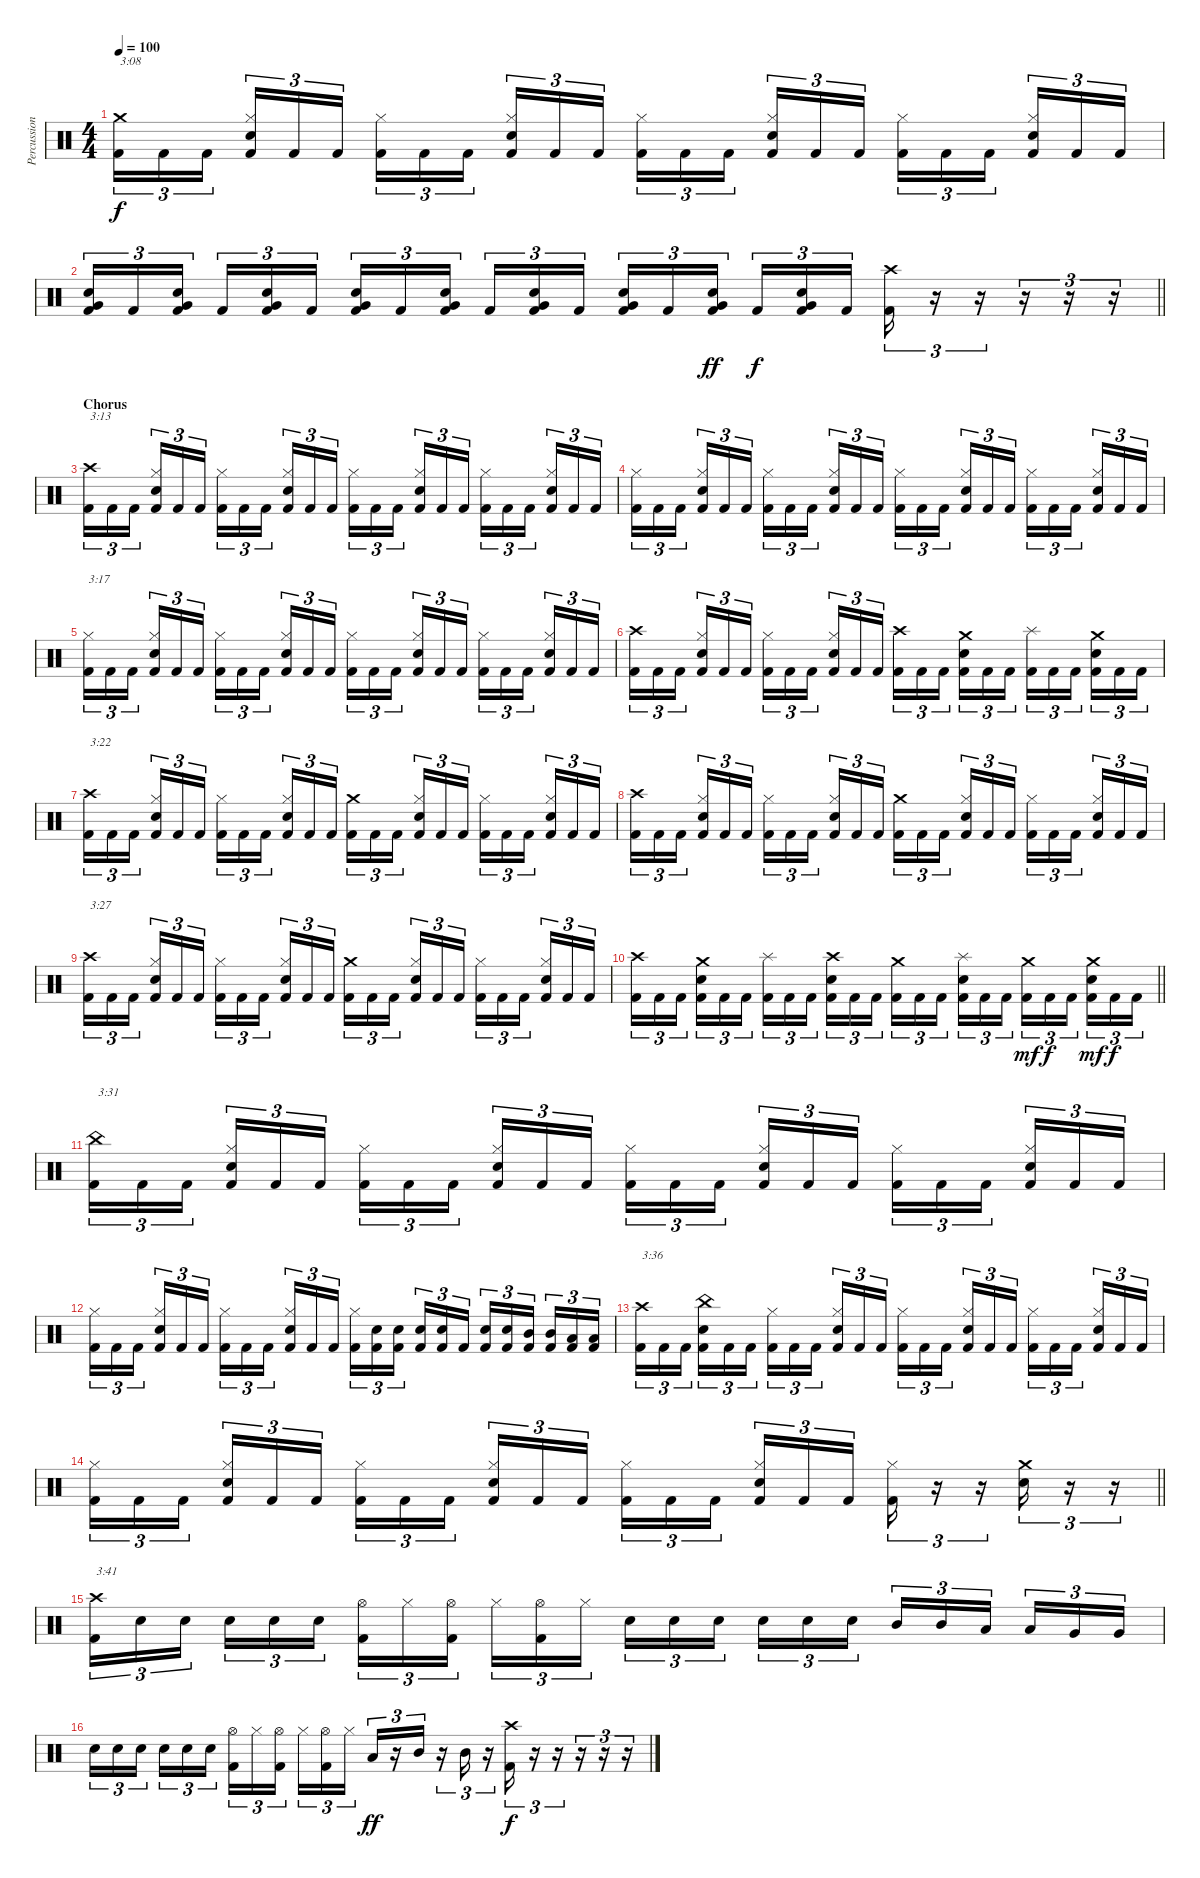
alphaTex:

\track ("Percussion" "Percussion") {instrument percussion}
\staff {score}
\articulation defaults
\ts (4 4)
\tempo 100
\clef neutral
\ks c
("Crash medium (hit)" "Kick (hit) 2").16{tu (3 2) txt "3:08" dy f} "Kick (hit) 2".16{tu (3 2)} "Kick (hit) 2".16{tu (3 2) beam splitsecondary} ("Hi-Hat (closed)" "Snare (hit) 2" "Kick (hit) 2").16{tu (3 2)} "Kick (hit) 2".16{tu (3 2)} "Kick (hit) 2".16{tu (3 2)} ("Hi-Hat (closed)" "Kick (hit) 2").16{tu (3 2)} "Kick (hit) 2".16{tu (3 2)} "Kick (hit) 2".16{tu (3 2) beam splitsecondary} ("Hi-Hat (closed)" "Snare (hit) 2" "Kick (hit) 2").16{tu (3 2)} "Kick (hit) 2".16{tu (3 2)} "Kick (hit) 2".16{tu (3 2)} ("Hi-Hat (closed)" "Kick (hit) 2").16{tu (3 2)} "Kick (hit) 2".16{tu (3 2)} "Kick (hit) 2".16{tu (3 2) beam splitsecondary} ("Hi-Hat (closed)" "Snare (hit) 2" "Kick (hit) 2").16{tu (3 2)} "Kick (hit) 2".16{tu (3 2)} "Kick (hit) 2".16{tu (3 2)} ("Hi-Hat (closed)" "Kick (hit) 2").16{tu (3 2)} "Kick (hit) 2".16{tu (3 2)} "Kick (hit) 2".16{tu (3 2) beam splitsecondary} ("Hi-Hat (closed)" "Snare (hit) 2" "Kick (hit) 2").16{tu (3 2)} "Kick (hit) 2".16{tu (3 2)} "Kick (hit) 2".16{tu (3 2)} |
\barLineRight lightlight
("Very Low Tom (hit)" "Snare (hit) 2" "Kick (hit) 2").16{tu (3 2)} "Kick (hit) 2".16{tu (3 2)} ("Very Low Tom (hit)" "Snare (hit) 2" "Kick (hit) 2").16{tu (3 2) beam splitsecondary} "Kick (hit) 2".16{tu (3 2)} ("Very Low Tom (hit)" "Snare (hit) 2" "Kick (hit) 2").16{tu (3 2)} "Kick (hit) 2".16{tu (3 2)} ("Very Low Tom (hit)" "Snare (hit) 2" "Kick (hit) 2").16{tu (3 2)} "Kick (hit) 2".16{tu (3 2)} ("Very Low Tom (hit)" "Snare (hit) 2" "Kick (hit) 2").16{tu (3 2) beam splitsecondary} "Kick (hit) 2".16{tu (3 2)} ("Very Low Tom (hit)" "Snare (hit) 2" "Kick (hit) 2").16{tu (3 2)} "Kick (hit) 2".16{tu (3 2)} ("Very Low Tom (hit)" "Snare (hit) 2" "Kick (hit) 2").16{tu (3 2)} "Kick (hit) 2".16{tu (3 2)} ("Very Low Tom (hit)" "Snare (hit) 2" "Kick (hit) 2").16{tu (3 2) dy ff beam splitsecondary} "Kick (hit) 2".16{tu (3 2) dy f} ("Very Low Tom (hit)" "Snare (hit) 2" "Kick (hit) 2").16{tu (3 2)} "Kick (hit) 2".16{tu (3 2)} ("Crash high (hit)" "Kick (hit) 2").16{tu (3 2)} r.16{tu (3 2)} r.16{tu (3 2)} r.16{tu (3 2)} r.16{tu (3 2)} r.16{tu (3 2)} |
\section ("" "Chorus")
("Crash high (hit)" "Kick (hit) 2").16{tu (3 2) txt "3:13"} "Kick (hit) 2".16{tu (3 2)} "Kick (hit) 2".16{tu (3 2) beam splitsecondary} ("Hi-Hat (closed)" "Snare (hit) 2" "Kick (hit) 2").16{tu (3 2)} "Kick (hit) 2".16{tu (3 2)} "Kick (hit) 2".16{tu (3 2)} ("Hi-Hat (closed)" "Kick (hit) 2").16{tu (3 2)} "Kick (hit) 2".16{tu (3 2)} "Kick (hit) 2".16{tu (3 2) beam splitsecondary} ("Hi-Hat (closed)" "Snare (hit) 2" "Kick (hit) 2").16{tu (3 2)} "Kick (hit) 2".16{tu (3 2)} "Kick (hit) 2".16{tu (3 2)} ("Hi-Hat (closed)" "Kick (hit) 2").16{tu (3 2)} "Kick (hit) 2".16{tu (3 2)} "Kick (hit) 2".16{tu (3 2) beam splitsecondary} ("Hi-Hat (closed)" "Snare (hit) 2" "Kick (hit) 2").16{tu (3 2)} "Kick (hit) 2".16{tu (3 2)} "Kick (hit) 2".16{tu (3 2)} ("Hi-Hat (closed)" "Kick (hit) 2").16{tu (3 2)} "Kick (hit) 2".16{tu (3 2)} "Kick (hit) 2".16{tu (3 2) beam splitsecondary} ("Hi-Hat (closed)" "Snare (hit) 2" "Kick (hit) 2").16{tu (3 2)} "Kick (hit) 2".16{tu (3 2)} "Kick (hit) 2".16{tu (3 2)} |
("Hi-Hat (closed)" "Kick (hit) 2").16{tu (3 2)} "Kick (hit) 2".16{tu (3 2)} "Kick (hit) 2".16{tu (3 2) beam splitsecondary} ("Hi-Hat (closed)" "Snare (hit) 2" "Kick (hit) 2").16{tu (3 2)} "Kick (hit) 2".16{tu (3 2)} "Kick (hit) 2".16{tu (3 2)} ("Hi-Hat (closed)" "Kick (hit) 2").16{tu (3 2)} "Kick (hit) 2".16{tu (3 2)} "Kick (hit) 2".16{tu (3 2) beam splitsecondary} ("Hi-Hat (closed)" "Snare (hit) 2" "Kick (hit) 2").16{tu (3 2)} "Kick (hit) 2".16{tu (3 2)} "Kick (hit) 2".16{tu (3 2)} ("Hi-Hat (closed)" "Kick (hit) 2").16{tu (3 2)} "Kick (hit) 2".16{tu (3 2)} "Kick (hit) 2".16{tu (3 2) beam splitsecondary} ("Hi-Hat (closed)" "Snare (hit) 2" "Kick (hit) 2").16{tu (3 2)} "Kick (hit) 2".16{tu (3 2)} "Kick (hit) 2".16{tu (3 2)} ("Hi-Hat (closed)" "Kick (hit) 2").16{tu (3 2)} "Kick (hit) 2".16{tu (3 2)} "Kick (hit) 2".16{tu (3 2) beam splitsecondary} ("Hi-Hat (closed)" "Snare (hit) 2" "Kick (hit) 2").16{tu (3 2)} "Kick (hit) 2".16{tu (3 2)} "Kick (hit) 2".16{tu (3 2)} |
("Hi-Hat (closed)" "Kick (hit) 2").16{tu (3 2) txt "3:17"} "Kick (hit) 2".16{tu (3 2)} "Kick (hit) 2".16{tu (3 2) beam splitsecondary} ("Hi-Hat (closed)" "Snare (hit) 2" "Kick (hit) 2").16{tu (3 2)} "Kick (hit) 2".16{tu (3 2)} "Kick (hit) 2".16{tu (3 2)} ("Hi-Hat (closed)" "Kick (hit) 2").16{tu (3 2)} "Kick (hit) 2".16{tu (3 2)} "Kick (hit) 2".16{tu (3 2) beam splitsecondary} ("Hi-Hat (closed)" "Snare (hit) 2" "Kick (hit) 2").16{tu (3 2)} "Kick (hit) 2".16{tu (3 2)} "Kick (hit) 2".16{tu (3 2)} ("Hi-Hat (closed)" "Kick (hit) 2").16{tu (3 2)} "Kick (hit) 2".16{tu (3 2)} "Kick (hit) 2".16{tu (3 2) beam splitsecondary} ("Hi-Hat (closed)" "Snare (hit) 2" "Kick (hit) 2").16{tu (3 2)} "Kick (hit) 2".16{tu (3 2)} "Kick (hit) 2".16{tu (3 2)} ("Hi-Hat (closed)" "Kick (hit) 2").16{tu (3 2)} "Kick (hit) 2".16{tu (3 2)} "Kick (hit) 2".16{tu (3 2) beam splitsecondary} ("Hi-Hat (closed)" "Snare (hit) 2" "Kick (hit) 2").16{tu (3 2)} "Kick (hit) 2".16{tu (3 2)} "Kick (hit) 2".16{tu (3 2)} |
("Crash high (hit)" "Kick (hit) 2").16{tu (3 2)} "Kick (hit) 2".16{tu (3 2)} "Kick (hit) 2".16{tu (3 2) beam splitsecondary} ("Hi-Hat (closed)" "Snare (hit) 2" "Kick (hit) 2").16{tu (3 2)} "Kick (hit) 2".16{tu (3 2)} "Kick (hit) 2".16{tu (3 2)} ("Hi-Hat (closed)" "Kick (hit) 2").16{tu (3 2)} "Kick (hit) 2".16{tu (3 2)} "Kick (hit) 2".16{tu (3 2) beam splitsecondary} ("Hi-Hat (closed)" "Snare (hit) 2" "Kick (hit) 2").16{tu (3 2)} "Kick (hit) 2".16{tu (3 2)} "Kick (hit) 2".16{tu (3 2)} ("Crash high (hit)" "Kick (hit) 2").16{tu (3 2)} "Kick (hit) 2".16{tu (3 2)} "Kick (hit) 2".16{tu (3 2) beam splitsecondary} ("Crash medium (hit)" "Snare (hit) 2" "Kick (hit) 2").16{tu (3 2)} "Kick (hit) 2".16{tu (3 2)} "Kick (hit) 2".16{tu (3 2)} ("Splash (hit)" "Kick (hit) 2").16{tu (3 2)} "Kick (hit) 2".16{tu (3 2)} "Kick (hit) 2".16{tu (3 2) beam splitsecondary} ("Crash medium (hit)" "Snare (hit) 2" "Kick (hit) 2").16{tu (3 2)} "Kick (hit) 2".16{tu (3 2)} "Kick (hit) 2".16{tu (3 2)} |
("Crash high (hit)" "Kick (hit) 2").16{tu (3 2) txt "3:22"} "Kick (hit) 2".16{tu (3 2)} "Kick (hit) 2".16{tu (3 2) beam splitsecondary} ("Hi-Hat (closed)" "Snare (hit) 2" "Kick (hit) 2").16{tu (3 2)} "Kick (hit) 2".16{tu (3 2)} "Kick (hit) 2".16{tu (3 2)} ("Hi-Hat (closed)" "Kick (hit) 2").16{tu (3 2)} "Kick (hit) 2".16{tu (3 2)} "Kick (hit) 2".16{tu (3 2) beam splitsecondary} ("Hi-Hat (closed)" "Snare (hit) 2" "Kick (hit) 2").16{tu (3 2)} "Kick (hit) 2".16{tu (3 2)} "Kick (hit) 2".16{tu (3 2)} ("Crash medium (hit)" "Kick (hit) 2").16{tu (3 2)} "Kick (hit) 2".16{tu (3 2)} "Kick (hit) 2".16{tu (3 2) beam splitsecondary} ("Hi-Hat (closed)" "Snare (hit) 2" "Kick (hit) 2").16{tu (3 2)} "Kick (hit) 2".16{tu (3 2)} "Kick (hit) 2".16{tu (3 2)} ("Hi-Hat (closed)" "Kick (hit) 2").16{tu (3 2)} "Kick (hit) 2".16{tu (3 2)} "Kick (hit) 2".16{tu (3 2) beam splitsecondary} ("Hi-Hat (closed)" "Snare (hit) 2" "Kick (hit) 2").16{tu (3 2)} "Kick (hit) 2".16{tu (3 2)} "Kick (hit) 2".16{tu (3 2)} |
("Crash high (hit)" "Kick (hit) 2").16{tu (3 2)} "Kick (hit) 2".16{tu (3 2)} "Kick (hit) 2".16{tu (3 2) beam splitsecondary} ("Hi-Hat (closed)" "Snare (hit) 2" "Kick (hit) 2").16{tu (3 2)} "Kick (hit) 2".16{tu (3 2)} "Kick (hit) 2".16{tu (3 2)} ("Hi-Hat (closed)" "Kick (hit) 2").16{tu (3 2)} "Kick (hit) 2".16{tu (3 2)} "Kick (hit) 2".16{tu (3 2) beam splitsecondary} ("Hi-Hat (closed)" "Snare (hit) 2" "Kick (hit) 2").16{tu (3 2)} "Kick (hit) 2".16{tu (3 2)} "Kick (hit) 2".16{tu (3 2)} ("Crash medium (hit)" "Kick (hit) 2").16{tu (3 2)} "Kick (hit) 2".16{tu (3 2)} "Kick (hit) 2".16{tu (3 2) beam splitsecondary} ("Hi-Hat (closed)" "Snare (hit) 2" "Kick (hit) 2").16{tu (3 2)} "Kick (hit) 2".16{tu (3 2)} "Kick (hit) 2".16{tu (3 2)} ("Hi-Hat (closed)" "Kick (hit) 2").16{tu (3 2)} "Kick (hit) 2".16{tu (3 2)} "Kick (hit) 2".16{tu (3 2) beam splitsecondary} ("Hi-Hat (closed)" "Snare (hit) 2" "Kick (hit) 2").16{tu (3 2)} "Kick (hit) 2".16{tu (3 2)} "Kick (hit) 2".16{tu (3 2)} |
("Crash high (hit)" "Kick (hit) 2").16{tu (3 2) txt "3:27"} "Kick (hit) 2".16{tu (3 2)} "Kick (hit) 2".16{tu (3 2) beam splitsecondary} ("Hi-Hat (closed)" "Snare (hit) 2" "Kick (hit) 2").16{tu (3 2)} "Kick (hit) 2".16{tu (3 2)} "Kick (hit) 2".16{tu (3 2)} ("Hi-Hat (closed)" "Kick (hit) 2").16{tu (3 2)} "Kick (hit) 2".16{tu (3 2)} "Kick (hit) 2".16{tu (3 2) beam splitsecondary} ("Hi-Hat (closed)" "Snare (hit) 2" "Kick (hit) 2").16{tu (3 2)} "Kick (hit) 2".16{tu (3 2)} "Kick (hit) 2".16{tu (3 2)} ("Crash medium (hit)" "Kick (hit) 2").16{tu (3 2)} "Kick (hit) 2".16{tu (3 2)} "Kick (hit) 2".16{tu (3 2) beam splitsecondary} ("Hi-Hat (closed)" "Snare (hit) 2" "Kick (hit) 2").16{tu (3 2)} "Kick (hit) 2".16{tu (3 2)} "Kick (hit) 2".16{tu (3 2)} ("Hi-Hat (closed)" "Kick (hit) 2").16{tu (3 2)} "Kick (hit) 2".16{tu (3 2)} "Kick (hit) 2".16{tu (3 2) beam splitsecondary} ("Hi-Hat (closed)" "Snare (hit) 2" "Kick (hit) 2").16{tu (3 2)} "Kick (hit) 2".16{tu (3 2)} "Kick (hit) 2".16{tu (3 2)} |
\barLineRight lightlight
("Crash high (hit)" "Kick (hit) 2").16{tu (3 2)} "Kick (hit) 2".16{tu (3 2)} "Kick (hit) 2".16{tu (3 2) beam splitsecondary} ("Crash medium (hit)" "Snare (hit) 2" "Kick (hit) 2").16{tu (3 2)} "Kick (hit) 2".16{tu (3 2)} "Kick (hit) 2".16{tu (3 2)} ("Splash (hit)" "Kick (hit) 2").16{tu (3 2)} "Kick (hit) 2".16{tu (3 2)} "Kick (hit) 2".16{tu (3 2) beam splitsecondary} ("Crash high (hit)" "Snare (hit) 2" "Kick (hit) 2").16{tu (3 2)} "Kick (hit) 2".16{tu (3 2)} "Kick (hit) 2".16{tu (3 2)} ("Crash medium (hit)" "Kick (hit) 2").16{tu (3 2)} "Kick (hit) 2".16{tu (3 2)} "Kick (hit) 2".16{tu (3 2) beam splitsecondary} ("Splash (hit)" "Snare (hit) 2" "Kick (hit) 2").16{tu (3 2)} "Kick (hit) 2".16{tu (3 2)} "Kick (hit) 2".16{tu (3 2)} ("Crash medium (hit)" "Kick (hit) 2").16{tu (3 2) dy mf} "Kick (hit) 2".16{tu (3 2) dy f} "Kick (hit) 2".16{tu (3 2) beam splitsecondary} ("Crash medium (hit)" "Snare (hit) 2" "Kick (hit) 2").16{tu (3 2) dy mf} "Kick (hit) 2".16{tu (3 2) dy f} "Kick (hit) 2".16{tu (3 2)} |
("China (hit)" "Kick (hit) 2").16{tu (3 2) txt "3:31"} "Kick (hit) 2".16{tu (3 2)} "Kick (hit) 2".16{tu (3 2) beam splitsecondary} ("Hi-Hat (closed)" "Snare (hit) 2" "Kick (hit) 2").16{tu (3 2)} "Kick (hit) 2".16{tu (3 2)} "Kick (hit) 2".16{tu (3 2)} ("Hi-Hat (closed)" "Kick (hit) 2").16{tu (3 2)} "Kick (hit) 2".16{tu (3 2)} "Kick (hit) 2".16{tu (3 2) beam splitsecondary} ("Hi-Hat (closed)" "Snare (hit) 2" "Kick (hit) 2").16{tu (3 2)} "Kick (hit) 2".16{tu (3 2)} "Kick (hit) 2".16{tu (3 2)} ("Hi-Hat (closed)" "Kick (hit) 2").16{tu (3 2)} "Kick (hit) 2".16{tu (3 2)} "Kick (hit) 2".16{tu (3 2) beam splitsecondary} ("Hi-Hat (closed)" "Snare (hit) 2" "Kick (hit) 2").16{tu (3 2)} "Kick (hit) 2".16{tu (3 2)} "Kick (hit) 2".16{tu (3 2)} ("Hi-Hat (closed)" "Kick (hit) 2").16{tu (3 2)} "Kick (hit) 2".16{tu (3 2)} "Kick (hit) 2".16{tu (3 2) beam splitsecondary} ("Hi-Hat (closed)" "Snare (hit) 2" "Kick (hit) 2").16{tu (3 2)} "Kick (hit) 2".16{tu (3 2)} "Kick (hit) 2".16{tu (3 2)} |
("Hi-Hat (closed)" "Kick (hit) 2").16{tu (3 2)} "Kick (hit) 2".16{tu (3 2)} "Kick (hit) 2".16{tu (3 2) beam splitsecondary} ("Hi-Hat (closed)" "Snare (hit) 2" "Kick (hit) 2").16{tu (3 2)} "Kick (hit) 2".16{tu (3 2)} "Kick (hit) 2".16{tu (3 2)} ("Hi-Hat (closed)" "Kick (hit) 2").16{tu (3 2)} "Kick (hit) 2".16{tu (3 2)} "Kick (hit) 2".16{tu (3 2) beam splitsecondary} ("Hi-Hat (closed)" "Snare (hit) 2" "Kick (hit) 2").16{tu (3 2)} "Kick (hit) 2".16{tu (3 2)} "Kick (hit) 2".16{tu (3 2)} ("Hi-Hat (closed)" "Kick (hit) 2").16{tu (3 2)} ("Snare (hit) 2" "Kick (hit) 2").16{tu (3 2)} ("Snare (hit) 2" "Kick (hit) 2").16{tu (3 2) beam splitsecondary} ("Snare (hit) 2" "Kick (hit) 2").16{tu (3 2)} ("Snare (hit) 2" "Kick (hit) 2").16{tu (3 2)} "Kick (hit) 2".16{tu (3 2)} ("Snare (hit) 2" "Kick (hit) 2").16{tu (3 2)} ("Snare (hit) 2" "Kick (hit) 2").16{tu (3 2)} ("Mid Tom (hit)" "Kick (hit) 2").16{tu (3 2) beam splitsecondary} ("Mid Tom (hit)" "Kick (hit) 2").16{tu (3 2)} ("Low Tom (hit)" "Kick (hit) 2").16{tu (3 2)} ("Low Tom (hit)" "Kick (hit) 2").16{tu (3 2)} |
("Crash high (hit)" "Kick (hit) 2").16{tu (3 2) txt "3:36"} "Kick (hit) 2".16{tu (3 2)} "Kick (hit) 2".16{tu (3 2) beam splitsecondary} ("China (hit)" "Snare (hit) 2" "Kick (hit) 2").16{tu (3 2)} "Kick (hit) 2".16{tu (3 2)} "Kick (hit) 2".16{tu (3 2)} ("Hi-Hat (closed)" "Kick (hit) 2").16{tu (3 2)} "Kick (hit) 2".16{tu (3 2)} "Kick (hit) 2".16{tu (3 2) beam splitsecondary} ("Hi-Hat (closed)" "Snare (hit) 2" "Kick (hit) 2").16{tu (3 2)} "Kick (hit) 2".16{tu (3 2)} "Kick (hit) 2".16{tu (3 2)} ("Hi-Hat (closed)" "Kick (hit) 2").16{tu (3 2)} "Kick (hit) 2".16{tu (3 2)} "Kick (hit) 2".16{tu (3 2) beam splitsecondary} ("Hi-Hat (closed)" "Snare (hit) 2" "Kick (hit) 2").16{tu (3 2)} "Kick (hit) 2".16{tu (3 2)} "Kick (hit) 2".16{tu (3 2)} ("Hi-Hat (closed)" "Kick (hit) 2").16{tu (3 2)} "Kick (hit) 2".16{tu (3 2)} "Kick (hit) 2".16{tu (3 2) beam splitsecondary} ("Hi-Hat (closed)" "Snare (hit) 2" "Kick (hit) 2").16{tu (3 2)} "Kick (hit) 2".16{tu (3 2)} "Kick (hit) 2".16{tu (3 2)} |
\barLineRight lightlight
("Hi-Hat (closed)" "Kick (hit) 2").16{tu (3 2)} "Kick (hit) 2".16{tu (3 2)} "Kick (hit) 2".16{tu (3 2) beam splitsecondary} ("Hi-Hat (closed)" "Snare (hit) 2" "Kick (hit) 2").16{tu (3 2)} "Kick (hit) 2".16{tu (3 2)} "Kick (hit) 2".16{tu (3 2)} ("Hi-Hat (closed)" "Kick (hit) 2").16{tu (3 2)} "Kick (hit) 2".16{tu (3 2)} "Kick (hit) 2".16{tu (3 2) beam splitsecondary} ("Hi-Hat (closed)" "Snare (hit) 2" "Kick (hit) 2").16{tu (3 2)} "Kick (hit) 2".16{tu (3 2)} "Kick (hit) 2".16{tu (3 2)} ("Hi-Hat (closed)" "Kick (hit) 2").16{tu (3 2)} "Kick (hit) 2".16{tu (3 2)} "Kick (hit) 2".16{tu (3 2) beam splitsecondary} ("Hi-Hat (closed)" "Snare (hit) 2" "Kick (hit) 2").16{tu (3 2)} "Kick (hit) 2".16{tu (3 2)} "Kick (hit) 2".16{tu (3 2)} ("Hi-Hat (closed)" "Kick (hit) 2").16{tu (3 2)} r.16{tu (3 2)} r.16{tu (3 2)} ("Crash medium (hit)" "Snare (hit) 2").16{tu (3 2)} r.16{tu (3 2)} r.16{tu (3 2)} |
("Crash high (hit)" "Kick (hit) 2").16{tu (3 2) txt "3:41"} "Snare (hit) 2".16{tu (3 2)} "Snare (hit) 2".16{tu (3 2) beam splitsecondary} "Snare (hit) 2".16{tu (3 2)} "Snare (hit) 2".16{tu (3 2)} "Snare (hit) 2".16{tu (3 2)} ("Hi-Hat (open)" "Kick (hit) 2").16{tu (3 2)} "Hi-Hat (closed)".16{tu (3 2)} ("Hi-Hat (open)" "Kick (hit) 2").16{tu (3 2) beam splitsecondary} "Hi-Hat (closed)".16{tu (3 2)} ("Hi-Hat (open)" "Kick (hit) 2").16{tu (3 2)} "Hi-Hat (closed)".16{tu (3 2)} "Snare (hit) 2".16{tu (3 2)} "Snare (hit) 2".16{tu (3 2)} "Snare (hit) 2".16{tu (3 2) beam splitsecondary} "Snare (hit) 2".16{tu (3 2)} "Snare (hit) 2".16{tu (3 2)} "Snare (hit) 2".16{tu (3 2)} "Mid Tom (hit)".16{tu (3 2)} "Mid Tom (hit)".16{tu (3 2)} "Low Tom (hit)".16{tu (3 2) beam splitsecondary} "Low Tom (hit)".16{tu (3 2)} "Very Low Tom (hit)".16{tu (3 2)} "Very Low Tom (hit)".16{tu (3 2)} |
"Snare (hit) 2".16{tu (3 2)} "Snare (hit) 2".16{tu (3 2)} "Snare (hit) 2".16{tu (3 2) beam splitsecondary} "Snare (hit) 2".16{tu (3 2)} "Snare (hit) 2".16{tu (3 2)} "Snare (hit) 2".16{tu (3 2)} ("Hi-Hat (open)" "Kick (hit) 2").16{tu (3 2)} "Hi-Hat (closed)".16{tu (3 2)} ("Hi-Hat (open)" "Kick (hit) 2").16{tu (3 2) beam splitsecondary} "Hi-Hat (closed)".16{tu (3 2)} ("Hi-Hat (open)" "Kick (hit) 2").16{tu (3 2)} "Hi-Hat (closed)".16{tu (3 2)} "Low Tom (hit)".16{tu (3 2) dy ff} r.16{tu (3 2)} "Mid Tom (hit)".16{tu (3 2)} r.16{tu (3 2)} "Mid Tom (hit)".16{tu (3 2)} r.16{tu (3 2)} ("Crash high (hit)" "Kick (hit) 2").16{tu (3 2) dy f} r.16{tu (3 2)} r.16{tu (3 2)} r.16{tu (3 2)} r.16{tu (3 2)} r.16{tu (3 2)}
